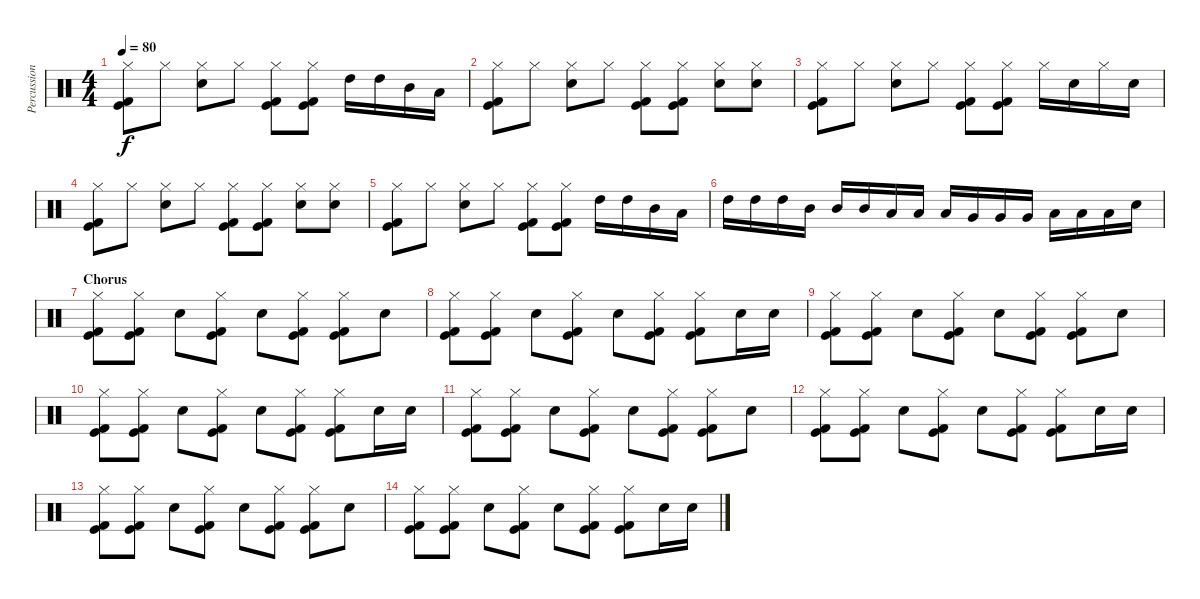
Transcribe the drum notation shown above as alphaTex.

\track ("Percussion" "Percussion") {instrument percussion}
\staff {score}
\articulation defaults
\ts (4 4)
\tempo 80
\clef neutral
\ks c
("Hi-Hat (closed)" "Kick (hit) 2" "Kick (hit)").8{dy f} "Hi-Hat (closed)".8 ("Hi-Hat (closed)" "Snare (hit) 2").8 "Hi-Hat (closed)".8 ("Hi-Hat (closed)" "Kick (hit) 2" "Kick (hit)").8 ("Hi-Hat (closed)" "Kick (hit) 2" "Kick (hit)").8 "High Tom (hit)".16 "High Tom (hit)".16 "Mid Tom (hit)".16 "Low Tom (hit)".16 |
("Hi-Hat (closed)" "Kick (hit) 2" "Kick (hit)").8 "Hi-Hat (closed)".8 ("Hi-Hat (closed)" "Snare (hit) 2").8 "Hi-Hat (closed)".8 ("Hi-Hat (closed)" "Kick (hit) 2" "Kick (hit)").8 ("Hi-Hat (closed)" "Kick (hit) 2" "Kick (hit)").8 ("Hi-Hat (closed)" "Snare (hit) 2").8 ("Hi-Hat (closed)" "Snare (hit) 2").8 |
("Hi-Hat (closed)" "Kick (hit) 2" "Kick (hit)").8 "Hi-Hat (closed)".8 ("Hi-Hat (closed)" "Snare (hit) 2").8 "Hi-Hat (closed)".8 ("Hi-Hat (closed)" "Kick (hit) 2" "Kick (hit)").8 ("Hi-Hat (closed)" "Kick (hit) 2" "Kick (hit)").8 "Hi-Hat (closed)".16 "Snare (hit) 2".16 "Hi-Hat (closed)".16 "Snare (hit) 2".16 |
("Hi-Hat (closed)" "Kick (hit) 2" "Kick (hit)").8 "Hi-Hat (closed)".8 ("Hi-Hat (closed)" "Snare (hit) 2").8 "Hi-Hat (closed)".8 ("Hi-Hat (closed)" "Kick (hit) 2" "Kick (hit)").8 ("Hi-Hat (closed)" "Kick (hit) 2" "Kick (hit)").8 ("Hi-Hat (closed)" "Snare (hit) 2").8 ("Hi-Hat (closed)" "Snare (hit) 2").8 |
("Hi-Hat (closed)" "Kick (hit) 2" "Kick (hit)").8 "Hi-Hat (closed)".8 ("Hi-Hat (closed)" "Snare (hit) 2").8 "Hi-Hat (closed)".8 ("Hi-Hat (closed)" "Kick (hit) 2" "Kick (hit)").8 ("Hi-Hat (closed)" "Kick (hit) 2" "Kick (hit)").8 "High Tom (hit)".16 "High Tom (hit)".16 "Mid Tom (hit)".16 "Low Tom (hit)".16 |
"High Tom (hit)".16 "High Tom (hit)".16 "High Tom (hit)".16 "Mid Tom (hit)".16 "Mid Tom (hit)".16 "Mid Tom (hit)".16 "Low Tom (hit)".16 "Low Tom (hit)".16 "Low Tom (hit)".16 "Very Low Tom (hit)".16 "Very Low Tom (hit)".16 "Very Low Tom (hit)".16 "Low Floor Tom (hit)".16 "Low Floor Tom (hit)".16 "Low Floor Tom (hit)".16 "Snare (hit) 2".16 |
\section ("" "Chorus")
("Hi-Hat (closed)" "Kick (hit) 2" "Kick (hit)").8 ("Hi-Hat (closed)" "Kick (hit) 2" "Kick (hit)").8 "Snare (hit) 2".8 ("Hi-Hat (closed)" "Kick (hit) 2" "Kick (hit)").8 "Snare (hit) 2".8 ("Hi-Hat (closed)" "Kick (hit) 2" "Kick (hit)").8 ("Hi-Hat (closed)" "Kick (hit) 2" "Kick (hit)").8 "Snare (hit) 2".8 |
("Hi-Hat (closed)" "Kick (hit) 2" "Kick (hit)").8 ("Hi-Hat (closed)" "Kick (hit) 2" "Kick (hit)").8 "Snare (hit) 2".8 ("Hi-Hat (closed)" "Kick (hit) 2" "Kick (hit)").8 "Snare (hit) 2".8 ("Hi-Hat (closed)" "Kick (hit) 2" "Kick (hit)").8 ("Hi-Hat (closed)" "Kick (hit) 2" "Kick (hit)").8 "Snare (hit) 2".16 "Snare (hit) 2".16 |
("Hi-Hat (closed)" "Kick (hit) 2" "Kick (hit)").8 ("Hi-Hat (closed)" "Kick (hit) 2" "Kick (hit)").8 "Snare (hit) 2".8 ("Hi-Hat (closed)" "Kick (hit) 2" "Kick (hit)").8 "Snare (hit) 2".8 ("Hi-Hat (closed)" "Kick (hit) 2" "Kick (hit)").8 ("Hi-Hat (closed)" "Kick (hit) 2" "Kick (hit)").8 "Snare (hit) 2".8 |
("Hi-Hat (closed)" "Kick (hit) 2" "Kick (hit)").8 ("Hi-Hat (closed)" "Kick (hit) 2" "Kick (hit)").8 "Snare (hit) 2".8 ("Hi-Hat (closed)" "Kick (hit) 2" "Kick (hit)").8 "Snare (hit) 2".8 ("Hi-Hat (closed)" "Kick (hit) 2" "Kick (hit)").8 ("Hi-Hat (closed)" "Kick (hit) 2" "Kick (hit)").8 "Snare (hit) 2".16 "Snare (hit) 2".16 |
("Hi-Hat (closed)" "Kick (hit) 2" "Kick (hit)").8 ("Hi-Hat (closed)" "Kick (hit) 2" "Kick (hit)").8 "Snare (hit) 2".8 ("Hi-Hat (closed)" "Kick (hit) 2" "Kick (hit)").8 "Snare (hit) 2".8 ("Hi-Hat (closed)" "Kick (hit) 2" "Kick (hit)").8 ("Hi-Hat (closed)" "Kick (hit) 2" "Kick (hit)").8 "Snare (hit) 2".8 |
("Hi-Hat (closed)" "Kick (hit) 2" "Kick (hit)").8 ("Hi-Hat (closed)" "Kick (hit) 2" "Kick (hit)").8 "Snare (hit) 2".8 ("Hi-Hat (closed)" "Kick (hit) 2" "Kick (hit)").8 "Snare (hit) 2".8 ("Hi-Hat (closed)" "Kick (hit) 2" "Kick (hit)").8 ("Hi-Hat (closed)" "Kick (hit) 2" "Kick (hit)").8 "Snare (hit) 2".16 "Snare (hit) 2".16 |
("Hi-Hat (closed)" "Kick (hit) 2" "Kick (hit)").8 ("Hi-Hat (closed)" "Kick (hit) 2" "Kick (hit)").8 "Snare (hit) 2".8 ("Hi-Hat (closed)" "Kick (hit) 2" "Kick (hit)").8 "Snare (hit) 2".8 ("Hi-Hat (closed)" "Kick (hit) 2" "Kick (hit)").8 ("Hi-Hat (closed)" "Kick (hit) 2" "Kick (hit)").8 "Snare (hit) 2".8 |
("Hi-Hat (closed)" "Kick (hit) 2" "Kick (hit)").8 ("Hi-Hat (closed)" "Kick (hit) 2" "Kick (hit)").8 "Snare (hit) 2".8 ("Hi-Hat (closed)" "Kick (hit) 2" "Kick (hit)").8 "Snare (hit) 2".8 ("Hi-Hat (closed)" "Kick (hit) 2" "Kick (hit)").8 ("Hi-Hat (closed)" "Kick (hit) 2" "Kick (hit)").8 "Snare (hit) 2".16 "Snare (hit) 2".16
